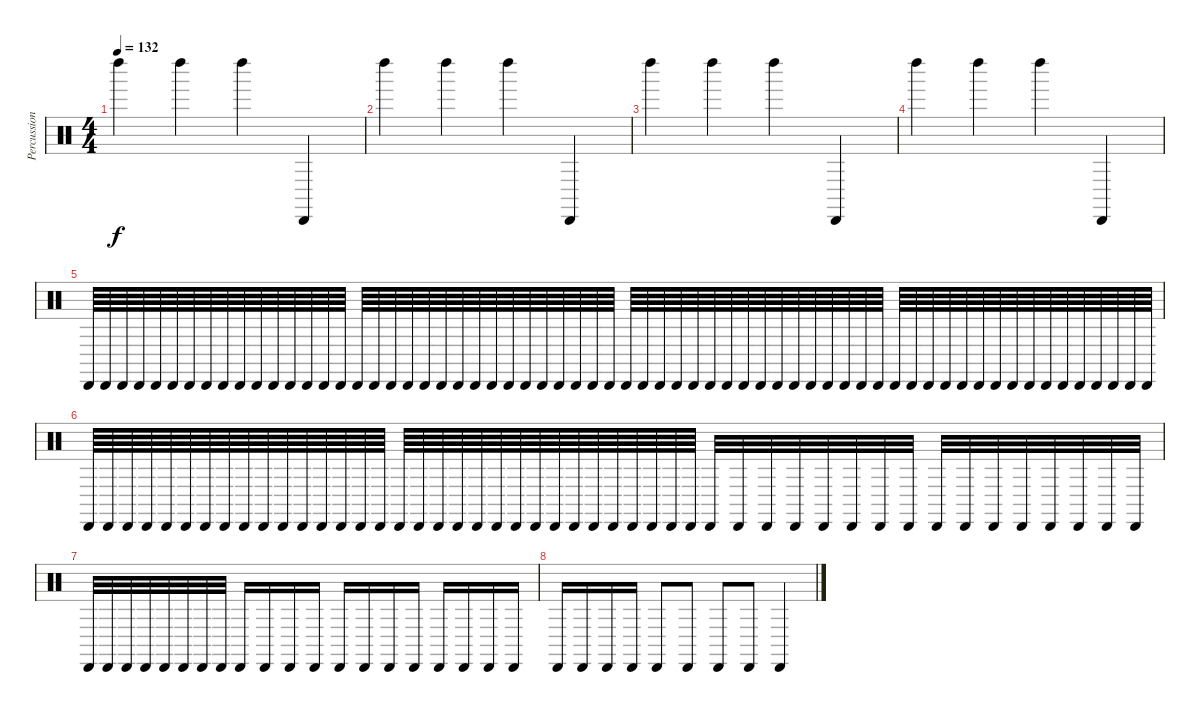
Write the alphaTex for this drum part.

\track ("Percussion" "Percussion") {instrument percussion}
\staff {score}
\articulation defaults
\ts (4 4)
\tempo 132
\clef neutral
\ks c "Left Maraca (hit)".4{dy f} "Left Maraca (hit)".4 "Left Maraca (hit)".4 "Cabasa (hit)".4
|
"Left Maraca (hit)".4 "Left Maraca (hit)".4 "Left Maraca (hit)".4 "Cabasa (hit)".4 |
"Left Maraca (hit)".4 "Left Maraca (hit)".4 "Left Maraca (hit)".4 "Cabasa (hit)".4 |
"Left Maraca (hit)".4 "Left Maraca (hit)".4 "Left Maraca (hit)".4 "Cabasa (hit)".4 |
"Cabasa (hit)".64{volume 11 balance 2} "Cabasa (hit)".64 "Cabasa (hit)".64 "Cabasa (hit)".64 "Cabasa (hit)".64 "Cabasa (hit)".64 "Cabasa (hit)".64 "Cabasa (hit)".64 "Cabasa (hit)".64 "Cabasa (hit)".64 "Cabasa (hit)".64 "Cabasa (hit)".64 "Cabasa (hit)".64 "Cabasa (hit)".64 "Cabasa (hit)".64 "Cabasa (hit)".64 "Cabasa (hit)".64 "Cabasa (hit)".64 "Cabasa (hit)".64 "Cabasa (hit)".64 "Cabasa (hit)".64 "Cabasa (hit)".64 "Cabasa (hit)".64 "Cabasa (hit)".64 "Cabasa (hit)".64 "Cabasa (hit)".64 "Cabasa (hit)".64 "Cabasa (hit)".64 "Cabasa (hit)".64 "Cabasa (hit)".64 "Cabasa (hit)".64 "Cabasa (hit)".64 "Cabasa (hit)".64 "Cabasa (hit)".64 "Cabasa (hit)".64 "Cabasa (hit)".64 "Cabasa (hit)".64 "Cabasa (hit)".64 "Cabasa (hit)".64 "Cabasa (hit)".64 "Cabasa (hit)".64 "Cabasa (hit)".64 "Cabasa (hit)".64 "Cabasa (hit)".64 "Cabasa (hit)".64 "Cabasa (hit)".64 "Cabasa (hit)".64 "Cabasa (hit)".64 "Cabasa (hit)".64 "Cabasa (hit)".64 "Cabasa (hit)".64 "Cabasa (hit)".64 "Cabasa (hit)".64 "Cabasa (hit)".64 "Cabasa (hit)".64{volume 10 balance 8} "Cabasa (hit)".64 "Cabasa (hit)".64 "Cabasa (hit)".64 "Cabasa (hit)".64 "Cabasa (hit)".64 "Cabasa (hit)".64 "Cabasa (hit)".64 "Cabasa (hit)".64 "Cabasa (hit)".64 |
"Cabasa (hit)".64 "Cabasa (hit)".64 "Cabasa (hit)".64 "Cabasa (hit)".64 "Cabasa (hit)".64 "Cabasa (hit)".64 "Cabasa (hit)".64 "Cabasa (hit)".64 "Cabasa (hit)".64 "Cabasa (hit)".64 "Cabasa (hit)".64 "Cabasa (hit)".64 "Cabasa (hit)".64 "Cabasa (hit)".64 "Cabasa (hit)".64 "Cabasa (hit)".64 "Cabasa (hit)".64 "Cabasa (hit)".64 "Cabasa (hit)".64 "Cabasa (hit)".64 "Cabasa (hit)".64 "Cabasa (hit)".64 "Cabasa (hit)".64 "Cabasa (hit)".64 "Cabasa (hit)".64 "Cabasa (hit)".64 "Cabasa (hit)".64 "Cabasa (hit)".64 "Cabasa (hit)".64 "Cabasa (hit)".64 "Cabasa (hit)".64 "Cabasa (hit)".64{volume 14 balance 13} "Cabasa (hit)".32 "Cabasa (hit)".32 "Cabasa (hit)".32 "Cabasa (hit)".32 "Cabasa (hit)".32 "Cabasa (hit)".32 "Cabasa (hit)".32 "Cabasa (hit)".32 "Cabasa (hit)".32 "Cabasa (hit)".32 "Cabasa (hit)".32 "Cabasa (hit)".32 "Cabasa (hit)".32 "Cabasa (hit)".32 "Cabasa (hit)".32 "Cabasa (hit)".32 |
"Cabasa (hit)".32{volume 13 balance 14} "Cabasa (hit)".32 "Cabasa (hit)".32 "Cabasa (hit)".32 "Cabasa (hit)".32 "Cabasa (hit)".32 "Cabasa (hit)".32 "Cabasa (hit)".32 "Cabasa (hit)".16 "Cabasa (hit)".16 "Cabasa (hit)".16 "Cabasa (hit)".16 "Cabasa (hit)".16 "Cabasa (hit)".16 "Cabasa (hit)".16 "Cabasa (hit)".16 "Cabasa (hit)".16 "Cabasa (hit)".16 "Cabasa (hit)".16 "Cabasa (hit)".16 |
"Cabasa (hit)".16 "Cabasa (hit)".16 "Cabasa (hit)".16 "Cabasa (hit)".16 "Cabasa (hit)".8 "Cabasa (hit)".8 "Cabasa (hit)".8 "Cabasa (hit)".8 "Cabasa (hit)".4
